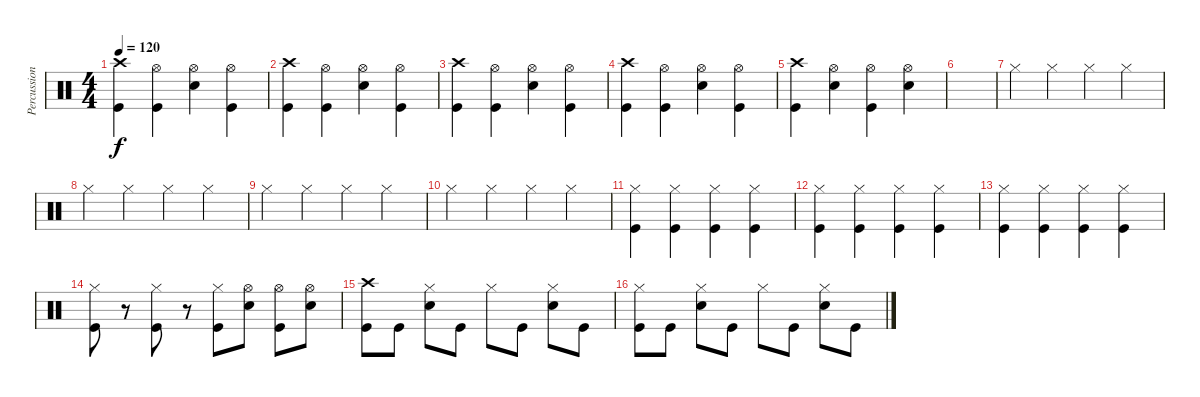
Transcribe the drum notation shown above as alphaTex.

\track ("Percussion" "Percussion") {instrument percussion}
\staff {score}
\articulation defaults
\ts (4 4)
\tempo 120
\clef neutral
\ks c
("Crash high (hit)" "Kick (hit)").4{dy f} ("Hi-Hat (open)" "Kick (hit)").4 ("Hi-Hat (open)" "Snare (hit) 2").4 ("Hi-Hat (open)" "Kick (hit)").4 |
("Crash high (hit)" "Kick (hit)").4 ("Hi-Hat (open)" "Kick (hit)").4 ("Hi-Hat (open)" "Snare (hit) 2").4 ("Hi-Hat (open)" "Kick (hit)").4 |
("Crash high (hit)" "Kick (hit)").4 ("Hi-Hat (open)" "Kick (hit)").4 ("Hi-Hat (open)" "Snare (hit) 2").4 ("Hi-Hat (open)" "Kick (hit)").4 |
("Crash high (hit)" "Kick (hit)").4 ("Hi-Hat (open)" "Kick (hit)").4 ("Hi-Hat (open)" "Snare (hit) 2").4 ("Hi-Hat (open)" "Kick (hit)").4 |
("Crash high (hit)" "Kick (hit)").4 ("Hi-Hat (open)" "Snare (hit) 2").4 ("Hi-Hat (open)" "Kick (hit)").4 ("Hi-Hat (open)" "Snare (hit) 2").4 |
|
"Hi-Hat (closed)".4 "Hi-Hat (closed)".4 "Hi-Hat (closed)".4 "Hi-Hat (closed)".4 |
"Hi-Hat (closed)".4 "Hi-Hat (closed)".4 "Hi-Hat (closed)".4 "Hi-Hat (closed)".4 |
"Hi-Hat (closed)".4 "Hi-Hat (closed)".4 "Hi-Hat (closed)".4 "Hi-Hat (closed)".4 |
"Hi-Hat (closed)".4 "Hi-Hat (closed)".4 "Hi-Hat (closed)".4 "Hi-Hat (closed)".4 |
("Hi-Hat (closed)" "Kick (hit)").4 ("Hi-Hat (closed)" "Kick (hit)").4 ("Hi-Hat (closed)" "Kick (hit)").4 ("Hi-Hat (closed)" "Kick (hit)").4 |
("Hi-Hat (closed)" "Kick (hit)").4 ("Hi-Hat (closed)" "Kick (hit)").4 ("Hi-Hat (closed)" "Kick (hit)").4 ("Hi-Hat (closed)" "Kick (hit)").4 |
("Hi-Hat (closed)" "Kick (hit)").4 ("Hi-Hat (closed)" "Kick (hit)").4 ("Hi-Hat (closed)" "Kick (hit)").4 ("Hi-Hat (closed)" "Kick (hit)").4 |
("Hi-Hat (closed)" "Kick (hit)").8 r.8 ("Hi-Hat (closed)" "Kick (hit)").8 r.8 ("Hi-Hat (closed)" "Kick (hit)").8 ("Hi-Hat (open)" "Snare (hit) 2").8 ("Hi-Hat (open)" "Kick (hit)").8 ("Hi-Hat (open)" "Snare (hit) 2").8 |
("Crash high (hit)" "Kick (hit)").8 "Kick (hit)".8 ("Hi-Hat (closed)" "Snare (hit) 2").8 "Kick (hit)".8 "Hi-Hat (closed)".8 "Kick (hit)".8 ("Hi-Hat (closed)" "Snare (hit) 2").8 "Kick (hit)".8 |
("Hi-Hat (closed)" "Kick (hit)").8 "Kick (hit)".8 ("Hi-Hat (closed)" "Snare (hit) 2").8 "Kick (hit)".8 "Hi-Hat (closed)".8 "Kick (hit)".8 ("Hi-Hat (closed)" "Snare (hit) 2").8 "Kick (hit)".8
